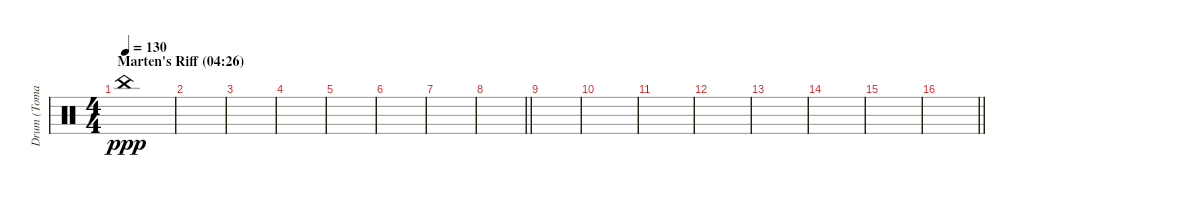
\track ("Drum (Tomas Haake)" "Drum (Toma") {instrument percussion}
\staff {score}
\articulation defaults
\ts (4 4)
\section ("" "Marten's Riff (04:26)")
\tempo 130
\clef neutral
\ks c "China (hit)".1{dy ppp}
|
|
|
|
|
|
|
\barLineRight lightlight
|
|
|
|
|
|
|
|
\barLineRight lightlight
